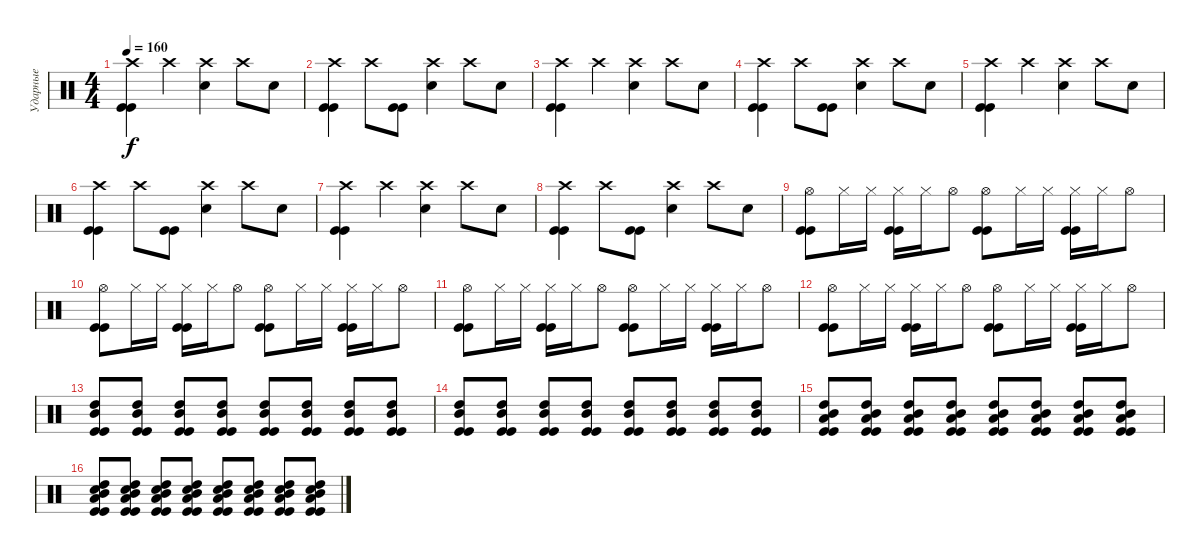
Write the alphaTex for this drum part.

\track ("Ударные" "Ударные") {instrument percussion}
\staff {score}
\articulation defaults
\ts (4 4)
\tempo 160
\clef neutral
\ks c
("Crash high (hit)" "Kick (hit)" "Kick (hit)").4{dy f} "Crash high (hit)".4 ("Crash high (hit)" "Electric Snare (hit)").4 "Crash high (hit)".8 "Electric Snare (hit)".8 |
("Crash high (hit)" "Kick (hit)" "Kick (hit)").4 "Crash high (hit)".8 ("Kick (hit)" "Kick (hit)").8 ("Crash high (hit)" "Electric Snare (hit)").4 "Crash high (hit)".8 "Electric Snare (hit)".8 |
("Crash high (hit)" "Kick (hit)" "Kick (hit)").4 "Crash high (hit)".4 ("Crash high (hit)" "Electric Snare (hit)").4 "Crash high (hit)".8 "Electric Snare (hit)".8 |
("Crash high (hit)" "Kick (hit)" "Kick (hit)").4 "Crash high (hit)".8 ("Kick (hit)" "Kick (hit)").8 ("Crash high (hit)" "Electric Snare (hit)").4 "Crash high (hit)".8 "Electric Snare (hit)".8 |
("Crash high (hit)" "Kick (hit)" "Kick (hit)").4 "Crash high (hit)".4 ("Crash high (hit)" "Electric Snare (hit)").4 "Crash high (hit)".8 "Electric Snare (hit)".8 |
("Crash high (hit)" "Kick (hit)" "Kick (hit)").4 "Crash high (hit)".8 ("Kick (hit)" "Kick (hit)").8 ("Crash high (hit)" "Electric Snare (hit)").4 "Crash high (hit)".8 "Electric Snare (hit)".8 |
("Crash high (hit)" "Kick (hit)" "Kick (hit)").4 "Crash high (hit)".4 ("Crash high (hit)" "Electric Snare (hit)").4 "Crash high (hit)".8 "Electric Snare (hit)".8 |
("Crash high (hit)" "Kick (hit)" "Kick (hit)").4 "Crash high (hit)".8 ("Kick (hit)" "Kick (hit)").8 ("Crash high (hit)" "Electric Snare (hit)").4 "Crash high (hit)".8 "Electric Snare (hit)".8 |
("Hi-Hat (open)" "Kick (hit)" "Kick (hit)").8 "Hi-Hat (closed)".16 "Hi-Hat (closed)".16 ("Hi-Hat (closed)" "Kick (hit)" "Kick (hit)").16 "Hi-Hat (closed)".16 "Hi-Hat (open)".8 ("Hi-Hat (open)" "Kick (hit)" "Kick (hit)").8 "Hi-Hat (closed)".16 "Hi-Hat (closed)".16 ("Hi-Hat (closed)" "Kick (hit)" "Kick (hit)").16 "Hi-Hat (closed)".16 "Hi-Hat (open)".8 |
("Hi-Hat (open)" "Kick (hit)" "Kick (hit)").8 "Hi-Hat (closed)".16 "Hi-Hat (closed)".16 ("Hi-Hat (closed)" "Kick (hit)" "Kick (hit)").16 "Hi-Hat (closed)".16 "Hi-Hat (open)".8 ("Hi-Hat (open)" "Kick (hit)" "Kick (hit)").8 "Hi-Hat (closed)".16 "Hi-Hat (closed)".16 ("Hi-Hat (closed)" "Kick (hit)" "Kick (hit)").16 "Hi-Hat (closed)".16 "Hi-Hat (open)".8 |
("Hi-Hat (open)" "Kick (hit)" "Kick (hit)").8 "Hi-Hat (closed)".16 "Hi-Hat (closed)".16 ("Hi-Hat (closed)" "Kick (hit)" "Kick (hit)").16 "Hi-Hat (closed)".16 "Hi-Hat (open)".8 ("Hi-Hat (open)" "Kick (hit)" "Kick (hit)").8 "Hi-Hat (closed)".16 "Hi-Hat (closed)".16 ("Hi-Hat (closed)" "Kick (hit)" "Kick (hit)").16 "Hi-Hat (closed)".16 "Hi-Hat (open)".8 |
("Hi-Hat (open)" "Kick (hit)" "Kick (hit)").8 "Hi-Hat (closed)".16 "Hi-Hat (closed)".16 ("Hi-Hat (closed)" "Kick (hit)" "Kick (hit)").16 "Hi-Hat (closed)".16 "Hi-Hat (open)".8 ("Hi-Hat (open)" "Kick (hit)" "Kick (hit)").8 "Hi-Hat (closed)".16 "Hi-Hat (closed)".16 ("Hi-Hat (closed)" "Kick (hit)" "Kick (hit)").16 "Hi-Hat (closed)".16 "Hi-Hat (open)".8 |
("High Tom (hit)" "Mid Tom (hit)" "Kick (hit)" "Kick (hit)").8{volume 6} ("High Tom (hit)" "Mid Tom (hit)" "Kick (hit)" "Kick (hit)").8{volume 16} ("High Tom (hit)" "Mid Tom (hit)" "Kick (hit)" "Kick (hit)").8 ("High Tom (hit)" "Mid Tom (hit)" "Kick (hit)" "Kick (hit)").8 ("High Tom (hit)" "Mid Tom (hit)" "Kick (hit)" "Kick (hit)").8 ("High Tom (hit)" "Mid Tom (hit)" "Kick (hit)" "Kick (hit)").8 ("High Tom (hit)" "Mid Tom (hit)" "Kick (hit)" "Kick (hit)").8 ("High Tom (hit)" "Mid Tom (hit)" "Kick (hit)" "Kick (hit)").8 |
("High Tom (hit)" "Mid Tom (hit)" "Kick (hit)" "Kick (hit)").8 ("High Tom (hit)" "Mid Tom (hit)" "Kick (hit)" "Kick (hit)").8 ("High Tom (hit)" "Mid Tom (hit)" "Kick (hit)" "Kick (hit)").8 ("High Tom (hit)" "Mid Tom (hit)" "Kick (hit)" "Kick (hit)").8 ("High Tom (hit)" "Mid Tom (hit)" "Kick (hit)" "Kick (hit)").8 ("High Tom (hit)" "Mid Tom (hit)" "Kick (hit)" "Kick (hit)").8 ("High Tom (hit)" "Mid Tom (hit)" "Kick (hit)" "Kick (hit)").8 ("High Tom (hit)" "Mid Tom (hit)" "Kick (hit)" "Kick (hit)").8 |
("High Tom (hit)" "Mid Tom (hit)" "Low Tom (hit)" "Kick (hit)" "Kick (hit)").8 ("High Tom (hit)" "Mid Tom (hit)" "Low Tom (hit)" "Kick (hit)" "Kick (hit)").8 ("High Tom (hit)" "Mid Tom (hit)" "Low Tom (hit)" "Kick (hit)" "Kick (hit)").8 ("High Tom (hit)" "Mid Tom (hit)" "Low Tom (hit)" "Kick (hit)" "Kick (hit)").8 ("High Tom (hit)" "Mid Tom (hit)" "Low Tom (hit)" "Kick (hit)" "Kick (hit)").8 ("High Tom (hit)" "Mid Tom (hit)" "Low Tom (hit)" "Kick (hit)" "Kick (hit)").8 ("High Tom (hit)" "Mid Tom (hit)" "Low Tom (hit)" "Kick (hit)" "Kick (hit)").8 ("High Tom (hit)" "Mid Tom (hit)" "Low Tom (hit)" "Kick (hit)" "Kick (hit)").8 |
("Electric Snare (hit)" "High Tom (hit)" "Mid Tom (hit)" "Low Tom (hit)" "Kick (hit)" "Kick (hit)").8 ("Electric Snare (hit)" "High Tom (hit)" "Mid Tom (hit)" "Low Tom (hit)" "Kick (hit)" "Kick (hit)").8 ("Electric Snare (hit)" "High Tom (hit)" "Mid Tom (hit)" "Low Tom (hit)" "Kick (hit)" "Kick (hit)").8 ("Electric Snare (hit)" "High Tom (hit)" "Mid Tom (hit)" "Low Tom (hit)" "Kick (hit)" "Kick (hit)").8 ("Electric Snare (hit)" "High Tom (hit)" "Mid Tom (hit)" "Low Tom (hit)" "Kick (hit)" "Kick (hit)").8 ("Electric Snare (hit)" "High Tom (hit)" "Mid Tom (hit)" "Low Tom (hit)" "Kick (hit)" "Kick (hit)").8 ("Electric Snare (hit)" "High Tom (hit)" "Mid Tom (hit)" "Low Tom (hit)" "Kick (hit)" "Kick (hit)").8 ("Electric Snare (hit)" "High Tom (hit)" "Mid Tom (hit)" "Low Tom (hit)" "Kick (hit)" "Kick (hit)").8
